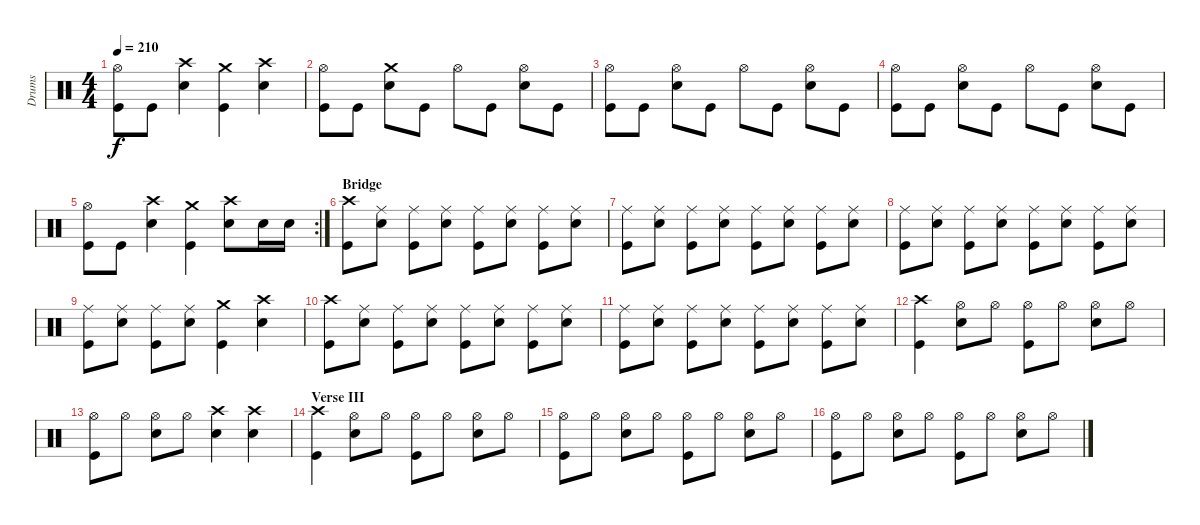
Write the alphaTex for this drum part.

\track ("Drums" "Drums") {instrument percussion}
\staff {score}
\articulation defaults
\ts (4 4)
\tempo 210
\clef neutral
\ks c
("Hi-Hat (open)" "Kick (hit)").8{dy f} "Kick (hit)".8 ("Crash high (hit)" "Electric Snare (hit)").4 ("Crash medium (hit)" "Kick (hit)").4 ("Crash high (hit)" "Electric Snare (hit)").4 |
("Hi-Hat (open)" "Kick (hit)").8 "Kick (hit)".8 ("Crash medium (hit)" "Electric Snare (hit)").8 "Kick (hit)".8 "Hi-Hat (open)".8 "Kick (hit)".8 ("Hi-Hat (open)" "Electric Snare (hit)").8 "Kick (hit)".8 |
("Hi-Hat (open)" "Kick (hit)").8 "Kick (hit)".8 ("Hi-Hat (open)" "Electric Snare (hit)").8 "Kick (hit)".8 "Hi-Hat (open)".8 "Kick (hit)".8 ("Hi-Hat (open)" "Electric Snare (hit)").8 "Kick (hit)".8 |
("Hi-Hat (open)" "Kick (hit)").8 "Kick (hit)".8 ("Hi-Hat (open)" "Electric Snare (hit)").8 "Kick (hit)".8 "Hi-Hat (open)".8 "Kick (hit)".8 ("Hi-Hat (open)" "Electric Snare (hit)").8 "Kick (hit)".8 |
\rc 2
("Hi-Hat (open)" "Kick (hit)").8 "Kick (hit)".8 ("Crash high (hit)" "Electric Snare (hit)").4 ("Crash medium (hit)" "Kick (hit)").4 ("Crash high (hit)" "Electric Snare (hit)").8 "Electric Snare (hit)".16 "Electric Snare (hit)".16 |
\section ("" "Bridge")
("Crash high (hit)" "Kick (hit)").8 ("Ride (middle)" "Electric Snare (hit)").8 ("Ride (middle)" "Kick (hit)").8 ("Ride (middle)" "Electric Snare (hit)").8 ("Ride (middle)" "Kick (hit)").8 ("Ride (middle)" "Electric Snare (hit)").8 ("Ride (middle)" "Kick (hit)").8 ("Ride (middle)" "Electric Snare (hit)").8 |
("Ride (middle)" "Kick (hit)").8 ("Ride (middle)" "Electric Snare (hit)").8 ("Ride (middle)" "Kick (hit)").8 ("Ride (middle)" "Electric Snare (hit)").8 ("Ride (middle)" "Kick (hit)").8 ("Ride (middle)" "Electric Snare (hit)").8 ("Ride (middle)" "Kick (hit)").8 ("Ride (middle)" "Electric Snare (hit)").8 |
("Ride (middle)" "Kick (hit)").8 ("Ride (middle)" "Electric Snare (hit)").8 ("Ride (middle)" "Kick (hit)").8 ("Ride (middle)" "Electric Snare (hit)").8 ("Ride (middle)" "Kick (hit)").8 ("Ride (middle)" "Electric Snare (hit)").8 ("Ride (middle)" "Kick (hit)").8 ("Ride (middle)" "Electric Snare (hit)").8 |
("Ride (middle)" "Kick (hit)").8 ("Ride (middle)" "Electric Snare (hit)").8 ("Ride (middle)" "Kick (hit)").8 ("Ride (middle)" "Electric Snare (hit)").8 ("Crash medium (hit)" "Kick (hit)").4 ("Crash high (hit)" "Electric Snare (hit)").4 |
("Crash high (hit)" "Kick (hit)").8 ("Ride (middle)" "Electric Snare (hit)").8 ("Ride (middle)" "Kick (hit)").8 ("Ride (middle)" "Electric Snare (hit)").8 ("Ride (middle)" "Kick (hit)").8 ("Ride (middle)" "Electric Snare (hit)").8 ("Ride (middle)" "Kick (hit)").8 ("Ride (middle)" "Electric Snare (hit)").8 |
("Ride (middle)" "Kick (hit)").8 ("Ride (middle)" "Electric Snare (hit)").8 ("Ride (middle)" "Kick (hit)").8 ("Ride (middle)" "Electric Snare (hit)").8 ("Ride (middle)" "Kick (hit)").8 ("Ride (middle)" "Electric Snare (hit)").8 ("Ride (middle)" "Kick (hit)").8 ("Ride (middle)" "Electric Snare (hit)").8 |
("Crash high (hit)" "Kick (hit)").4 ("Hi-Hat (open)" "Electric Snare (hit)").8 "Hi-Hat (open)".8 ("Hi-Hat (open)" "Kick (hit)").8 "Hi-Hat (open)".8 ("Hi-Hat (open)" "Electric Snare (hit)").8 "Hi-Hat (open)".8 |
("Hi-Hat (open)" "Kick (hit)").8 "Hi-Hat (open)".8 ("Hi-Hat (open)" "Electric Snare (hit)").8 "Hi-Hat (open)".8 ("Crash high (hit)" "Electric Snare (hit)").4 ("Crash high (hit)" "Electric Snare (hit)").4 |
\section ("" "Verse III")
("Crash high (hit)" "Kick (hit)").4 ("Hi-Hat (open)" "Electric Snare (hit)").8 "Hi-Hat (open)".8 ("Hi-Hat (open)" "Kick (hit)").8 "Hi-Hat (open)".8 ("Hi-Hat (open)" "Electric Snare (hit)").8 "Hi-Hat (open)".8 |
("Hi-Hat (open)" "Kick (hit)").8 "Hi-Hat (open)".8 ("Hi-Hat (open)" "Electric Snare (hit)").8 "Hi-Hat (open)".8 ("Hi-Hat (open)" "Kick (hit)").8 "Hi-Hat (open)".8 ("Hi-Hat (open)" "Electric Snare (hit)").8 "Hi-Hat (open)".8 |
("Hi-Hat (open)" "Kick (hit)").8 "Hi-Hat (open)".8 ("Hi-Hat (open)" "Electric Snare (hit)").8 "Hi-Hat (open)".8 ("Hi-Hat (open)" "Kick (hit)").8 "Hi-Hat (open)".8 ("Hi-Hat (open)" "Electric Snare (hit)").8 "Hi-Hat (open)".8
